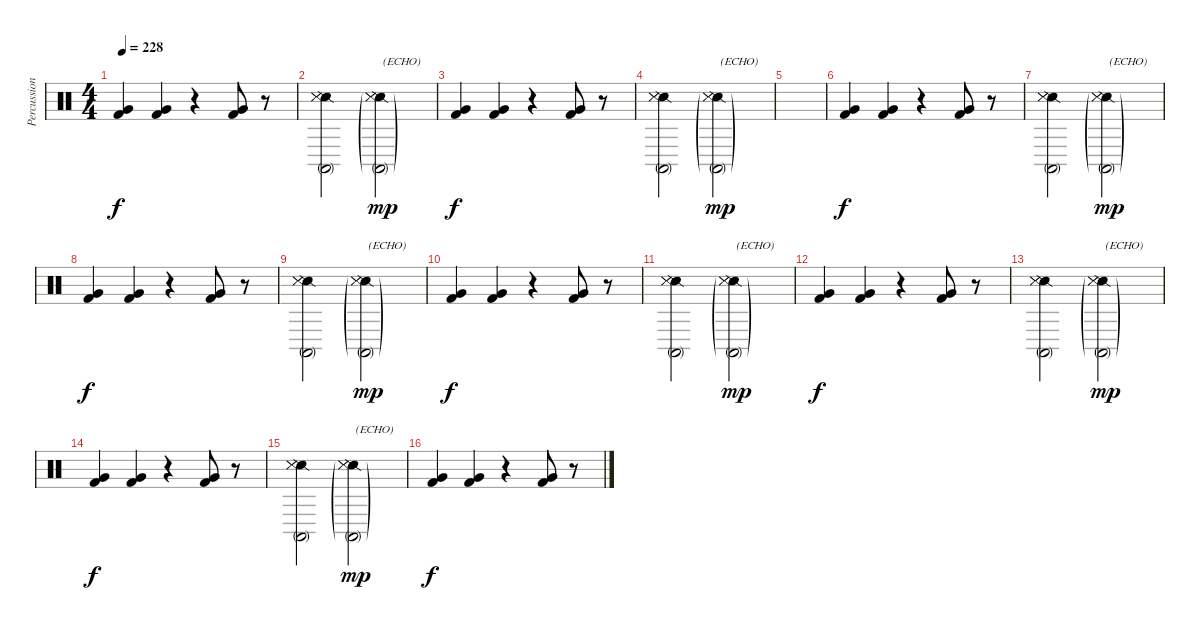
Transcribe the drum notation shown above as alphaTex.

\track ("Percussions" "Percussion") {instrument percussion}
\staff {score}
\articulation defaults
\ts (4 4)
\tempo 228
\clef neutral
\ks c
("Kick (hit) 2" "Very Low Tom (hit)").4{dy f} ("Kick (hit) 2" "Very Low Tom (hit)").4 r.4 ("Kick (hit) 2" "Very Low Tom (hit)").8 r.8 |
("Snare (side stick) 2" "Snare (side stick) 3" "Conga high (mute)" "Metronome (hit)").2 ("Snare (side stick) 2"{g} "Snare (side stick) 3"{g} "Conga high (mute)"{g} "Metronome (hit)"{g}).2{txt "(ECHO)" dy mp} |
("Kick (hit) 2" "Very Low Tom (hit)").4{dy f} ("Kick (hit) 2" "Very Low Tom (hit)").4 r.4 ("Kick (hit) 2" "Very Low Tom (hit)").8 r.8 |
("Snare (side stick) 2" "Snare (side stick) 3" "Conga high (mute)" "Metronome (hit)").2 ("Snare (side stick) 2"{g} "Snare (side stick) 3"{g} "Conga high (mute)"{g} "Metronome (hit)"{g}).2{txt "(ECHO)" dy mp} |
|
("Kick (hit) 2" "Very Low Tom (hit)").4{dy f} ("Kick (hit) 2" "Very Low Tom (hit)").4 r.4 ("Kick (hit) 2" "Very Low Tom (hit)").8 r.8 |
("Snare (side stick) 2" "Snare (side stick) 3" "Conga high (mute)" "Metronome (hit)").2 ("Snare (side stick) 2"{g} "Snare (side stick) 3"{g} "Conga high (mute)"{g} "Metronome (hit)"{g}).2{txt "(ECHO)" dy mp} |
("Kick (hit) 2" "Very Low Tom (hit)").4{dy f} ("Kick (hit) 2" "Very Low Tom (hit)").4 r.4 ("Kick (hit) 2" "Very Low Tom (hit)").8 r.8 |
("Snare (side stick) 2" "Snare (side stick) 3" "Conga high (mute)" "Metronome (hit)").2 ("Snare (side stick) 2"{g} "Snare (side stick) 3"{g} "Conga high (mute)"{g} "Metronome (hit)"{g}).2{txt "(ECHO)" dy mp} |
("Kick (hit) 2" "Very Low Tom (hit)").4{dy f} ("Kick (hit) 2" "Very Low Tom (hit)").4 r.4 ("Kick (hit) 2" "Very Low Tom (hit)").8 r.8 |
("Snare (side stick) 2" "Snare (side stick) 3" "Conga high (mute)" "Metronome (hit)").2 ("Snare (side stick) 2"{g} "Snare (side stick) 3"{g} "Conga high (mute)"{g} "Metronome (hit)"{g}).2{txt "(ECHO)" dy mp} |
("Kick (hit) 2" "Very Low Tom (hit)").4{dy f} ("Kick (hit) 2" "Very Low Tom (hit)").4 r.4 ("Kick (hit) 2" "Very Low Tom (hit)").8 r.8 |
("Snare (side stick) 2" "Snare (side stick) 3" "Conga high (mute)" "Metronome (hit)").2 ("Snare (side stick) 2"{g} "Snare (side stick) 3"{g} "Conga high (mute)"{g} "Metronome (hit)"{g}).2{txt "(ECHO)" dy mp} |
("Kick (hit) 2" "Very Low Tom (hit)").4{dy f} ("Kick (hit) 2" "Very Low Tom (hit)").4 r.4 ("Kick (hit) 2" "Very Low Tom (hit)").8 r.8 |
("Snare (side stick) 2" "Snare (side stick) 3" "Conga high (mute)" "Metronome (hit)").2 ("Snare (side stick) 2"{g} "Snare (side stick) 3"{g} "Conga high (mute)"{g} "Metronome (hit)"{g}).2{txt "(ECHO)" dy mp} |
("Kick (hit) 2" "Very Low Tom (hit)").4{dy f} ("Kick (hit) 2" "Very Low Tom (hit)").4 r.4 ("Kick (hit) 2" "Very Low Tom (hit)").8 r.8
